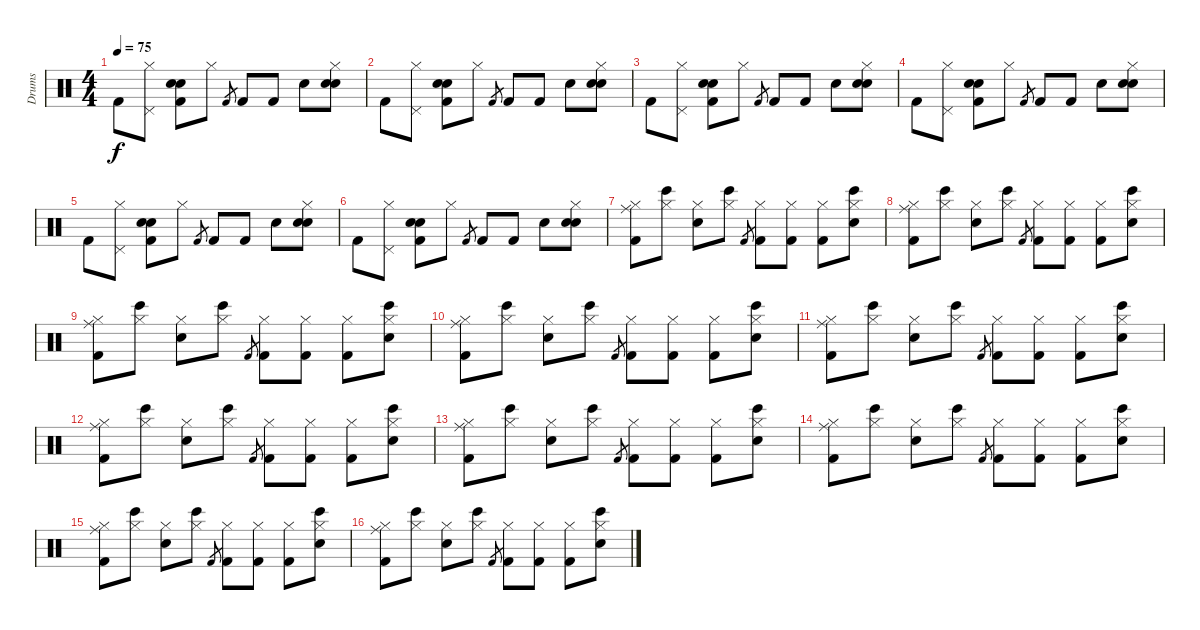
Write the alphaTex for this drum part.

\track ("Drums" "Drums") {instrument percussion}
\staff {score}
\articulation defaults
\ts (4 4)
\tempo 75
\clef neutral
\ks c "Kick (hit) 2".8{dy f}
("Hi-Hat (closed)" "Pedal Hi-Hat (hit)").8 ("Snare (hit) 2" "Electric Snare (hit)" "Kick (hit) 2").8 "Hi-Hat (closed)".8 "Kick (hit) 2".8{gr} "Kick (hit) 2".8 "Kick (hit) 2".8 "Electric Snare (hit)".8 ("Hi-Hat (closed)" "Snare (hit) 2" "Electric Snare (hit)").8 |
"Kick (hit) 2".8 ("Hi-Hat (closed)" "Pedal Hi-Hat (hit)").8 ("Snare (hit) 2" "Electric Snare (hit)" "Kick (hit) 2").8 "Hi-Hat (closed)".8 "Kick (hit) 2".8{gr} "Kick (hit) 2".8 "Kick (hit) 2".8 "Electric Snare (hit)".8 ("Hi-Hat (closed)" "Snare (hit) 2" "Electric Snare (hit)").8 |
"Kick (hit) 2".8 ("Hi-Hat (closed)" "Pedal Hi-Hat (hit)").8 ("Snare (hit) 2" "Electric Snare (hit)" "Kick (hit) 2").8 "Hi-Hat (closed)".8 "Kick (hit) 2".8{gr} "Kick (hit) 2".8 "Kick (hit) 2".8 "Electric Snare (hit)".8 ("Hi-Hat (closed)" "Snare (hit) 2" "Electric Snare (hit)").8 |
"Kick (hit) 2".8 ("Hi-Hat (closed)" "Pedal Hi-Hat (hit)").8 ("Snare (hit) 2" "Electric Snare (hit)" "Kick (hit) 2").8 "Hi-Hat (closed)".8 "Kick (hit) 2".8{gr} "Kick (hit) 2".8 "Kick (hit) 2".8 "Electric Snare (hit)".8 ("Hi-Hat (closed)" "Snare (hit) 2" "Electric Snare (hit)").8 |
"Kick (hit) 2".8 ("Hi-Hat (closed)" "Pedal Hi-Hat (hit)").8 ("Snare (hit) 2" "Electric Snare (hit)" "Kick (hit) 2").8 "Hi-Hat (closed)".8 "Kick (hit) 2".8{gr} "Kick (hit) 2".8 "Kick (hit) 2".8 "Electric Snare (hit)".8 ("Hi-Hat (closed)" "Snare (hit) 2" "Electric Snare (hit)").8 |
"Kick (hit) 2".8 ("Hi-Hat (closed)" "Pedal Hi-Hat (hit)").8 ("Snare (hit) 2" "Electric Snare (hit)" "Kick (hit) 2").8 "Hi-Hat (closed)".8 "Kick (hit) 2".8{gr} "Kick (hit) 2".8 "Kick (hit) 2".8 "Electric Snare (hit)".8 ("Hi-Hat (closed)" "Snare (hit) 2" "Electric Snare (hit)").8 |
("Ride (middle)" "Hi-Hat (closed)" "Kick (hit) 2").8 ("Bongo High (hit)" "Hi-Hat (closed)").8 ("Hi-Hat (closed)" "Electric Snare (hit)").8 ("Bongo High (hit)" "Hi-Hat (closed)").8 "Kick (hit) 2".8{gr} ("Hi-Hat (closed)" "Kick (hit) 2").8 ("Hi-Hat (closed)" "Kick (hit) 2").8 ("Hi-Hat (closed)" "Kick (hit) 2").8 ("Bongo High (hit)" "Hi-Hat (closed)" "Electric Snare (hit)").8 |
("Ride (middle)" "Hi-Hat (closed)" "Kick (hit) 2").8 ("Bongo High (hit)" "Hi-Hat (closed)").8 ("Hi-Hat (closed)" "Electric Snare (hit)").8 ("Bongo High (hit)" "Hi-Hat (closed)").8 "Kick (hit) 2".8{gr} ("Hi-Hat (closed)" "Kick (hit) 2").8 ("Hi-Hat (closed)" "Kick (hit) 2").8 ("Hi-Hat (closed)" "Kick (hit) 2").8 ("Bongo High (hit)" "Hi-Hat (closed)" "Electric Snare (hit)").8 |
("Ride (middle)" "Hi-Hat (closed)" "Kick (hit) 2").8 ("Bongo High (hit)" "Hi-Hat (closed)").8 ("Hi-Hat (closed)" "Electric Snare (hit)").8 ("Bongo High (hit)" "Hi-Hat (closed)").8 "Kick (hit) 2".8{gr} ("Hi-Hat (closed)" "Kick (hit) 2").8 ("Hi-Hat (closed)" "Kick (hit) 2").8 ("Hi-Hat (closed)" "Kick (hit) 2").8 ("Bongo High (hit)" "Hi-Hat (closed)" "Electric Snare (hit)").8 |
("Ride (middle)" "Hi-Hat (closed)" "Kick (hit) 2").8 ("Bongo High (hit)" "Hi-Hat (closed)").8 ("Hi-Hat (closed)" "Electric Snare (hit)").8 ("Bongo High (hit)" "Hi-Hat (closed)").8 "Kick (hit) 2".8{gr} ("Hi-Hat (closed)" "Kick (hit) 2").8 ("Hi-Hat (closed)" "Kick (hit) 2").8 ("Hi-Hat (closed)" "Kick (hit) 2").8 ("Bongo High (hit)" "Hi-Hat (closed)" "Electric Snare (hit)").8 |
("Ride (middle)" "Hi-Hat (closed)" "Kick (hit) 2").8 ("Bongo High (hit)" "Hi-Hat (closed)").8 ("Hi-Hat (closed)" "Electric Snare (hit)").8 ("Bongo High (hit)" "Hi-Hat (closed)").8 "Kick (hit) 2".8{gr} ("Hi-Hat (closed)" "Kick (hit) 2").8 ("Hi-Hat (closed)" "Kick (hit) 2").8 ("Hi-Hat (closed)" "Kick (hit) 2").8 ("Bongo High (hit)" "Hi-Hat (closed)" "Electric Snare (hit)").8 |
("Ride (middle)" "Hi-Hat (closed)" "Kick (hit) 2").8 ("Bongo High (hit)" "Hi-Hat (closed)").8 ("Hi-Hat (closed)" "Electric Snare (hit)").8 ("Bongo High (hit)" "Hi-Hat (closed)").8 "Kick (hit) 2".8{gr} ("Hi-Hat (closed)" "Kick (hit) 2").8 ("Hi-Hat (closed)" "Kick (hit) 2").8 ("Hi-Hat (closed)" "Kick (hit) 2").8 ("Bongo High (hit)" "Hi-Hat (closed)" "Electric Snare (hit)").8 |
("Ride (middle)" "Hi-Hat (closed)" "Kick (hit) 2").8 ("Bongo High (hit)" "Hi-Hat (closed)").8 ("Hi-Hat (closed)" "Electric Snare (hit)").8 ("Bongo High (hit)" "Hi-Hat (closed)").8 "Kick (hit) 2".8{gr} ("Hi-Hat (closed)" "Kick (hit) 2").8 ("Hi-Hat (closed)" "Kick (hit) 2").8 ("Hi-Hat (closed)" "Kick (hit) 2").8 ("Bongo High (hit)" "Hi-Hat (closed)" "Electric Snare (hit)").8 |
("Ride (middle)" "Hi-Hat (closed)" "Kick (hit) 2").8 ("Bongo High (hit)" "Hi-Hat (closed)").8 ("Hi-Hat (closed)" "Electric Snare (hit)").8 ("Bongo High (hit)" "Hi-Hat (closed)").8 "Kick (hit) 2".8{gr} ("Hi-Hat (closed)" "Kick (hit) 2").8 ("Hi-Hat (closed)" "Kick (hit) 2").8 ("Hi-Hat (closed)" "Kick (hit) 2").8 ("Bongo High (hit)" "Hi-Hat (closed)" "Electric Snare (hit)").8 |
("Ride (middle)" "Hi-Hat (closed)" "Kick (hit) 2").8 ("Bongo High (hit)" "Hi-Hat (closed)").8 ("Hi-Hat (closed)" "Electric Snare (hit)").8 ("Bongo High (hit)" "Hi-Hat (closed)").8 "Kick (hit) 2".8{gr} ("Hi-Hat (closed)" "Kick (hit) 2").8 ("Hi-Hat (closed)" "Kick (hit) 2").8 ("Hi-Hat (closed)" "Kick (hit) 2").8 ("Bongo High (hit)" "Hi-Hat (closed)" "Electric Snare (hit)").8 |
("Ride (middle)" "Hi-Hat (closed)" "Kick (hit) 2").8 ("Bongo High (hit)" "Hi-Hat (closed)").8 ("Hi-Hat (closed)" "Electric Snare (hit)").8 ("Bongo High (hit)" "Hi-Hat (closed)").8 "Kick (hit) 2".8{gr} ("Hi-Hat (closed)" "Kick (hit) 2").8 ("Hi-Hat (closed)" "Kick (hit) 2").8 ("Hi-Hat (closed)" "Kick (hit) 2").8 ("Bongo High (hit)" "Hi-Hat (closed)" "Electric Snare (hit)").8
